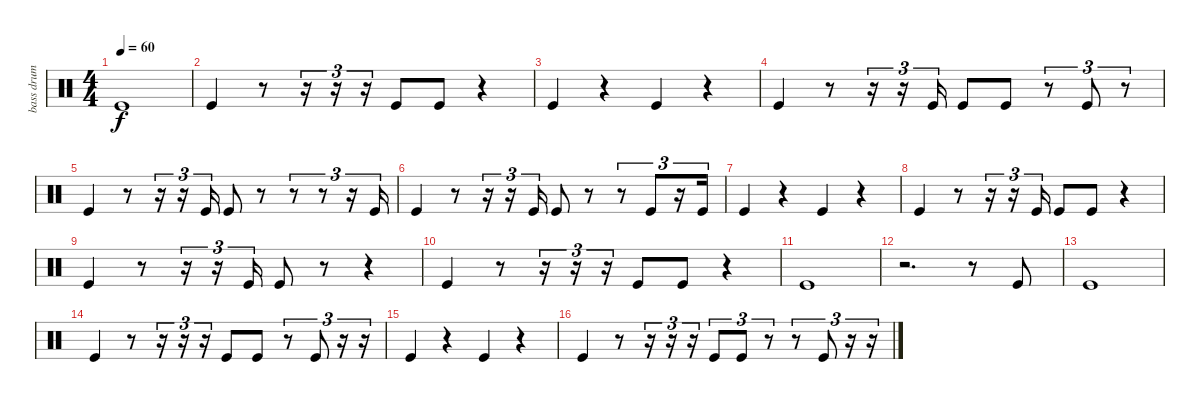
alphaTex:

\track ("bass drum" "bass drum") {instrument percussion}
\staff {score}
\articulation defaults
\ts (4 4)
\tempo 60
\clef neutral
\ks c "Kick (hit)".1{dy f}
|
"Kick (hit)".4 r.8 r.16{tu (3 2)} r.16{tu (3 2)} r.16{tu (3 2)} "Kick (hit)".8 "Kick (hit)".8 r.4 |
"Kick (hit)".4 r.4 "Kick (hit)".4 r.4 |
"Kick (hit)".4 r.8 r.16{tu (3 2)} r.16{tu (3 2)} "Kick (hit)".16{tu (3 2)} "Kick (hit)".8 "Kick (hit)".8 r.8{tu (3 2)} "Kick (hit)".8{tu (3 2)} r.8{tu (3 2)} |
"Kick (hit)".4 r.8 r.16{tu (3 2)} r.16{tu (3 2)} "Kick (hit)".16{tu (3 2)} "Kick (hit)".8 r.8 r.8{tu (3 2)} r.8{tu (3 2)} r.16{tu (3 2)} "Kick (hit)".16{tu (3 2)} |
"Kick (hit)".4 r.8 r.16{tu (3 2)} r.16{tu (3 2)} "Kick (hit)".16{tu (3 2)} "Kick (hit)".8 r.8 r.8{tu (3 2)} "Kick (hit)".8{tu (3 2)} r.16{tu (3 2)} "Kick (hit)".16{tu (3 2)} |
"Kick (hit)".4 r.4 "Kick (hit)".4 r.4 |
"Kick (hit)".4 r.8 r.16{tu (3 2)} r.16{tu (3 2)} "Kick (hit)".16{tu (3 2)} "Kick (hit)".8 "Kick (hit)".8 r.4 |
"Kick (hit)".4 r.8 r.16{tu (3 2)} r.16{tu (3 2)} "Kick (hit)".16{tu (3 2)} "Kick (hit)".8 r.8 r.4 |
"Kick (hit)".4 r.8 r.16{tu (3 2)} r.16{tu (3 2)} r.16{tu (3 2)} "Kick (hit)".8 "Kick (hit)".8 r.4 |
"Kick (hit)".1 |
r.2{d} r.8 "Kick (hit)".8 |
"Kick (hit)".1 |
"Kick (hit)".4 r.8 r.16{tu (3 2)} r.16{tu (3 2)} r.16{tu (3 2)} "Kick (hit)".8 "Kick (hit)".8 r.8{tu (3 2)} "Kick (hit)".8{tu (3 2)} r.16{tu (3 2)} r.16{tu (3 2)} |
"Kick (hit)".4 r.4 "Kick (hit)".4 r.4 |
"Kick (hit)".4 r.8 r.16{tu (3 2)} r.16{tu (3 2)} r.16{tu (3 2)} "Kick (hit)".8{tu (3 2)} "Kick (hit)".8{tu (3 2)} r.8{tu (3 2)} r.8{tu (3 2)} "Kick (hit)".8{tu (3 2)} r.16{tu (3 2)} r.16{tu (3 2)}
